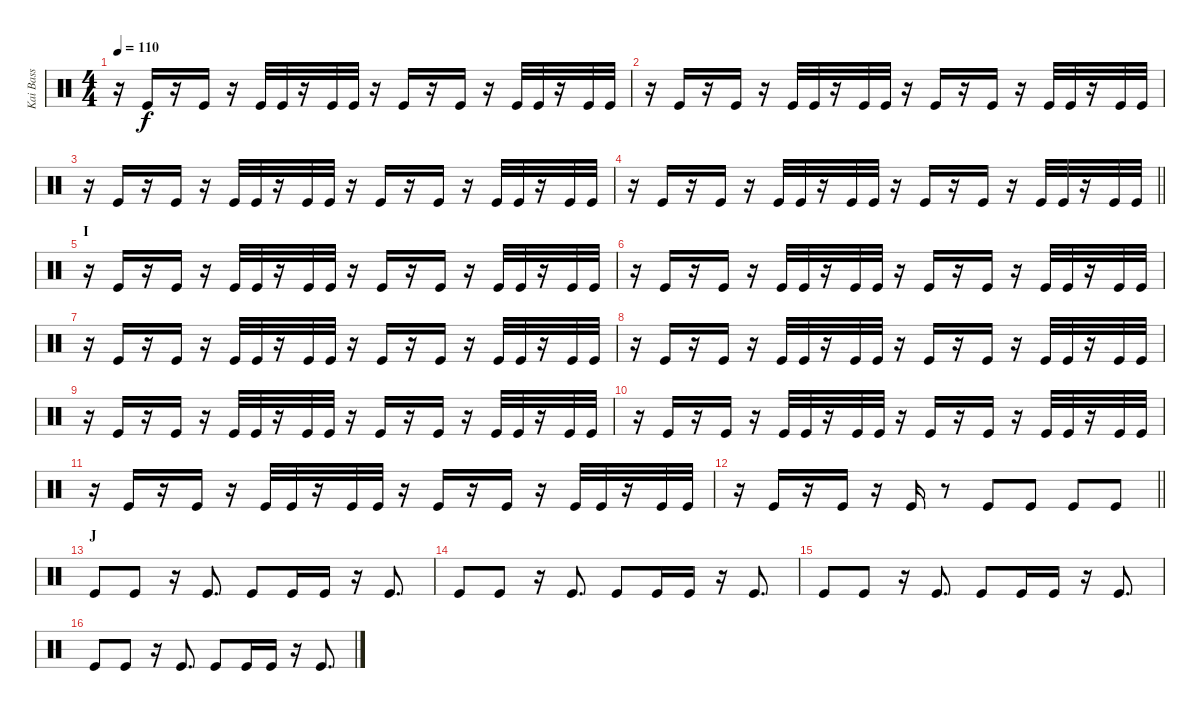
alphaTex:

\track ("Kai Bass" "Kai Bass") {instrument percussion}
\staff {score}
\articulation defaults
\ts (4 4)
\tempo 110
\clef neutral
\ks c
r.16{dy f} "Kick (hit)".16 r.16 "Kick (hit)".16 r.16 "Kick (hit)".32 "Kick (hit)".32 r.16 "Kick (hit)".32 "Kick (hit)".32 r.16 "Kick (hit)".16 r.16 "Kick (hit)".16 r.16 "Kick (hit)".32 "Kick (hit)".32 r.16 "Kick (hit)".32 "Kick (hit)".32 |
r.16 "Kick (hit)".16 r.16 "Kick (hit)".16 r.16 "Kick (hit)".32 "Kick (hit)".32 r.16 "Kick (hit)".32 "Kick (hit)".32 r.16 "Kick (hit)".16 r.16 "Kick (hit)".16 r.16 "Kick (hit)".32 "Kick (hit)".32 r.16 "Kick (hit)".32 "Kick (hit)".32 |
r.16 "Kick (hit)".16 r.16 "Kick (hit)".16 r.16 "Kick (hit)".32 "Kick (hit)".32 r.16 "Kick (hit)".32 "Kick (hit)".32 r.16 "Kick (hit)".16 r.16 "Kick (hit)".16 r.16 "Kick (hit)".32 "Kick (hit)".32 r.16 "Kick (hit)".32 "Kick (hit)".32 |
\barLineRight lightlight
r.16 "Kick (hit)".16 r.16 "Kick (hit)".16 r.16 "Kick (hit)".32 "Kick (hit)".32 r.16 "Kick (hit)".32 "Kick (hit)".32 r.16 "Kick (hit)".16 r.16 "Kick (hit)".16 r.16 "Kick (hit)".32 "Kick (hit)".32 r.16 "Kick (hit)".32 "Kick (hit)".32 |
\section ("" "I")
r.16 "Kick (hit)".16 r.16 "Kick (hit)".16 r.16 "Kick (hit)".32 "Kick (hit)".32 r.16 "Kick (hit)".32 "Kick (hit)".32 r.16 "Kick (hit)".16 r.16 "Kick (hit)".16 r.16 "Kick (hit)".32 "Kick (hit)".32 r.16 "Kick (hit)".32 "Kick (hit)".32 |
r.16 "Kick (hit)".16 r.16 "Kick (hit)".16 r.16 "Kick (hit)".32 "Kick (hit)".32 r.16 "Kick (hit)".32 "Kick (hit)".32 r.16 "Kick (hit)".16 r.16 "Kick (hit)".16 r.16 "Kick (hit)".32 "Kick (hit)".32 r.16 "Kick (hit)".32 "Kick (hit)".32 |
r.16 "Kick (hit)".16 r.16 "Kick (hit)".16 r.16 "Kick (hit)".32 "Kick (hit)".32 r.16 "Kick (hit)".32 "Kick (hit)".32 r.16 "Kick (hit)".16 r.16 "Kick (hit)".16 r.16 "Kick (hit)".32 "Kick (hit)".32 r.16 "Kick (hit)".32 "Kick (hit)".32 |
r.16 "Kick (hit)".16 r.16 "Kick (hit)".16 r.16 "Kick (hit)".32 "Kick (hit)".32 r.16 "Kick (hit)".32 "Kick (hit)".32 r.16 "Kick (hit)".16 r.16 "Kick (hit)".16 r.16 "Kick (hit)".32 "Kick (hit)".32 r.16 "Kick (hit)".32 "Kick (hit)".32 |
r.16 "Kick (hit)".16 r.16 "Kick (hit)".16 r.16 "Kick (hit)".32 "Kick (hit)".32 r.16 "Kick (hit)".32 "Kick (hit)".32 r.16 "Kick (hit)".16 r.16 "Kick (hit)".16 r.16 "Kick (hit)".32 "Kick (hit)".32 r.16 "Kick (hit)".32 "Kick (hit)".32 |
r.16 "Kick (hit)".16 r.16 "Kick (hit)".16 r.16 "Kick (hit)".32 "Kick (hit)".32 r.16 "Kick (hit)".32 "Kick (hit)".32 r.16 "Kick (hit)".16 r.16 "Kick (hit)".16 r.16 "Kick (hit)".32 "Kick (hit)".32 r.16 "Kick (hit)".32 "Kick (hit)".32 |
r.16 "Kick (hit)".16 r.16 "Kick (hit)".16 r.16 "Kick (hit)".32 "Kick (hit)".32 r.16 "Kick (hit)".32 "Kick (hit)".32 r.16 "Kick (hit)".16 r.16 "Kick (hit)".16 r.16 "Kick (hit)".32 "Kick (hit)".32 r.16 "Kick (hit)".32 "Kick (hit)".32 |
\barLineRight lightlight
r.16 "Kick (hit)".16 r.16 "Kick (hit)".16 r.16 "Kick (hit)".16 r.8 "Kick (hit)".8 "Kick (hit)".8 "Kick (hit)".8 "Kick (hit)".8 |
\section ("" "J")
"Kick (hit)".8 "Kick (hit)".8 r.16 "Kick (hit)".8{d} "Kick (hit)".8 "Kick (hit)".16 "Kick (hit)".16 r.16 "Kick (hit)".8{d} |
"Kick (hit)".8 "Kick (hit)".8 r.16 "Kick (hit)".8{d} "Kick (hit)".8 "Kick (hit)".16 "Kick (hit)".16 r.16 "Kick (hit)".8{d} |
"Kick (hit)".8 "Kick (hit)".8 r.16 "Kick (hit)".8{d} "Kick (hit)".8 "Kick (hit)".16 "Kick (hit)".16 r.16 "Kick (hit)".8{d} |
"Kick (hit)".8 "Kick (hit)".8 r.16 "Kick (hit)".8{d} "Kick (hit)".8 "Kick (hit)".16 "Kick (hit)".16 r.16 "Kick (hit)".8{d}
